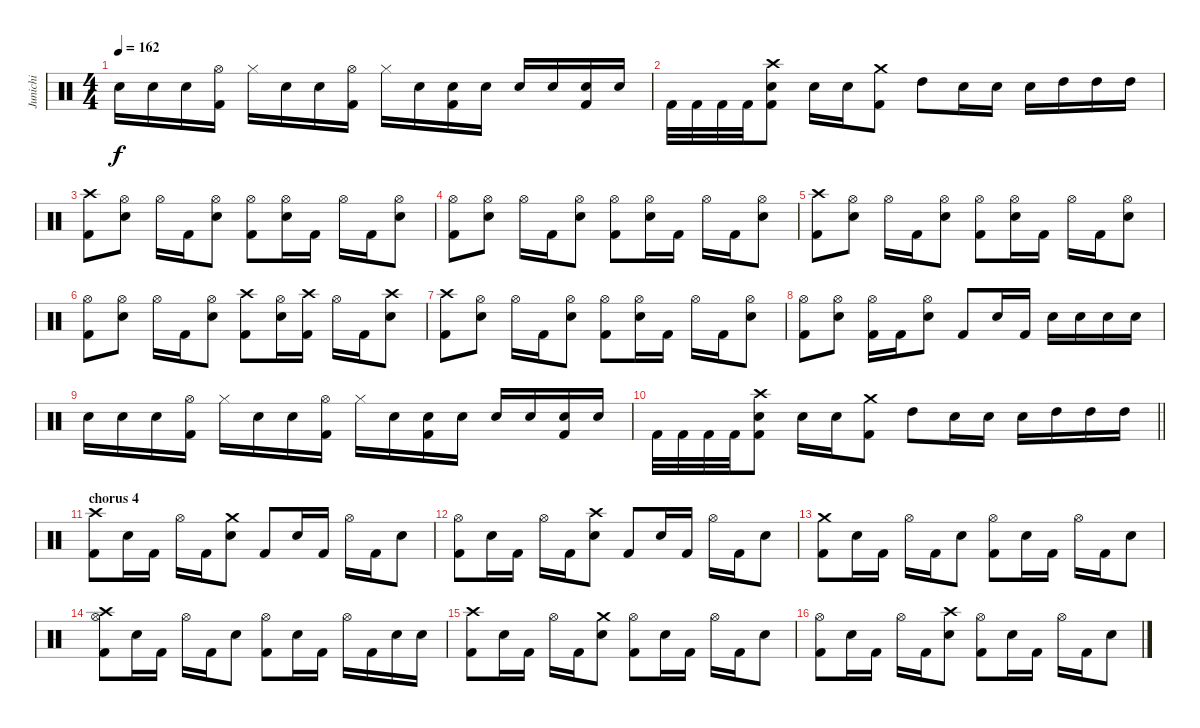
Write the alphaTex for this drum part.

\track ("Junichi" "Junichi") {instrument percussion}
\staff {score}
\articulation defaults
\ts (4 4)
\tempo 162
\clef neutral
\ks c "Electric Snare (hit)".16{dy f} "Electric Snare (hit)".16 "Electric Snare (hit)".16
("Hi-Hat (open)" "Kick (hit) 2").16 "Hi-Hat (closed)".16 "Electric Snare (hit)".16 "Electric Snare (hit)".16 ("Hi-Hat (open)" "Kick (hit) 2").16 "Hi-Hat (closed)".16 "Electric Snare (hit)".16 ("Electric Snare (hit)" "Kick (hit) 2").16 "Electric Snare (hit)".16 "Electric Snare (hit)".16 "Electric Snare (hit)".16 ("Electric Snare (hit)" "Kick (hit) 2").16 "Electric Snare (hit)".16 |
"Kick (hit) 2".32 "Kick (hit) 2".32 "Kick (hit) 2".32 "Kick (hit) 2".32 ("Crash high (hit)" "Electric Snare (hit)" "Kick (hit) 2").8 "Electric Snare (hit)".16 "Electric Snare (hit)".16 ("Crash medium (hit)" "Kick (hit) 2").8 "High Tom (hit)".8 "Electric Snare (hit)".16 "Electric Snare (hit)".16 "Electric Snare (hit)".16 "High Tom (hit)".16 "High Tom (hit)".16 "High Tom (hit)".16 |
("Crash high (hit)" "Kick (hit) 2").8 ("Hi-Hat (open)" "Electric Snare (hit)").8 "Hi-Hat (open)".16 "Kick (hit) 2".16 ("Hi-Hat (open)" "Electric Snare (hit)").8 ("Hi-Hat (open)" "Kick (hit) 2").8 ("Hi-Hat (open)" "Electric Snare (hit)").16 "Kick (hit) 2".16 "Hi-Hat (open)".16 "Kick (hit) 2".16 ("Hi-Hat (open)" "Electric Snare (hit)").8 |
("Hi-Hat (open)" "Kick (hit) 2").8 ("Hi-Hat (open)" "Electric Snare (hit)").8 "Hi-Hat (open)".16 "Kick (hit) 2".16 ("Hi-Hat (open)" "Electric Snare (hit)").8 ("Hi-Hat (open)" "Kick (hit) 2").8 ("Hi-Hat (open)" "Electric Snare (hit)").16 "Kick (hit) 2".16 "Hi-Hat (open)".16 "Kick (hit) 2".16 ("Hi-Hat (open)" "Electric Snare (hit)").8 |
("Crash high (hit)" "Kick (hit) 2").8 ("Hi-Hat (open)" "Electric Snare (hit)").8 "Hi-Hat (open)".16 "Kick (hit) 2".16 ("Hi-Hat (open)" "Electric Snare (hit)").8 ("Hi-Hat (open)" "Kick (hit) 2").8 ("Hi-Hat (open)" "Electric Snare (hit)").16 "Kick (hit) 2".16 "Hi-Hat (open)".16 "Kick (hit) 2".16 ("Hi-Hat (open)" "Electric Snare (hit)").8 |
("Hi-Hat (open)" "Kick (hit) 2").8 ("Hi-Hat (open)" "Electric Snare (hit)").8 "Hi-Hat (open)".16 "Kick (hit) 2".16 ("Hi-Hat (open)" "Electric Snare (hit)").8 ("Crash high (hit)" "Kick (hit) 2").8 ("Hi-Hat (open)" "Electric Snare (hit)").16 ("Crash high (hit)" "Kick (hit) 2").16 "Hi-Hat (open)".16 "Kick (hit) 2".16 ("Crash high (hit)" "Electric Snare (hit)").8 |
("Crash high (hit)" "Kick (hit) 2").8 ("Hi-Hat (open)" "Electric Snare (hit)").8 "Hi-Hat (open)".16 "Kick (hit) 2".16 ("Hi-Hat (open)" "Electric Snare (hit)").8 ("Hi-Hat (open)" "Kick (hit) 2").8 ("Hi-Hat (open)" "Electric Snare (hit)").16 "Kick (hit) 2".16 "Hi-Hat (open)".16 "Kick (hit) 2".16 ("Hi-Hat (open)" "Electric Snare (hit)").8 |
("Hi-Hat (open)" "Kick (hit) 2").8 ("Hi-Hat (open)" "Electric Snare (hit)").8 ("Hi-Hat (open)" "Kick (hit) 2").16 "Kick (hit) 2".16 ("Hi-Hat (open)" "Electric Snare (hit)").8 "Kick (hit) 2".8 "Electric Snare (hit)".16 "Kick (hit) 2".16 "Electric Snare (hit)".16 "Electric Snare (hit)".16 "Electric Snare (hit)".16 "Electric Snare (hit)".16 |
"Electric Snare (hit)".16 "Electric Snare (hit)".16 "Electric Snare (hit)".16 ("Hi-Hat (open)" "Kick (hit) 2").16 "Hi-Hat (closed)".16 "Electric Snare (hit)".16 "Electric Snare (hit)".16 ("Hi-Hat (open)" "Kick (hit) 2").16 "Hi-Hat (closed)".16 "Electric Snare (hit)".16 ("Electric Snare (hit)" "Kick (hit) 2").16 "Electric Snare (hit)".16 "Electric Snare (hit)".16 "Electric Snare (hit)".16 ("Electric Snare (hit)" "Kick (hit) 2").16 "Electric Snare (hit)".16 |
\barLineRight lightlight "Kick (hit) 2".32 "Kick (hit) 2".32 "Kick (hit) 2".32 "Kick (hit) 2".32
("Crash high (hit)" "Electric Snare (hit)" "Kick (hit) 2").8 "Electric Snare (hit)".16 "Electric Snare (hit)".16 ("Crash medium (hit)" "Kick (hit) 2").8 "High Tom (hit)".8 "Electric Snare (hit)".16 "Electric Snare (hit)".16 "Electric Snare (hit)".16 "High Tom (hit)".16 "High Tom (hit)".16 "High Tom (hit)".16 |
\section ("" "chorus 4")
("Crash high (hit)" "Kick (hit) 2").8 "Electric Snare (hit)".16 "Kick (hit) 2".16 "Hi-Hat (open)".16 "Kick (hit) 2".16 ("Crash medium (hit)" "Electric Snare (hit)").8 "Kick (hit) 2".8 "Electric Snare (hit)".16 "Kick (hit) 2".16 "Hi-Hat (open)".16 "Kick (hit) 2".16 "Electric Snare (hit)".8 |
("Hi-Hat (open)" "Kick (hit) 2").8 "Electric Snare (hit)".16 "Kick (hit) 2".16 "Hi-Hat (open)".16 "Kick (hit) 2".16 ("Crash high (hit)" "Electric Snare (hit)").8 "Kick (hit) 2".8 "Electric Snare (hit)".16 "Kick (hit) 2".16 "Hi-Hat (open)".16 "Kick (hit) 2".16 "Electric Snare (hit)".8 |
("Crash medium (hit)" "Kick (hit) 2").8 "Electric Snare (hit)".16 "Kick (hit) 2".16 "Hi-Hat (open)".16 "Kick (hit) 2".16 "Electric Snare (hit)".8 ("Hi-Hat (open)" "Kick (hit) 2").8 "Electric Snare (hit)".16 "Kick (hit) 2".16 "Hi-Hat (open)".16 "Kick (hit) 2".16 "Electric Snare (hit)".8 |
("Crash high (hit)" "Hi-Hat (open)" "Kick (hit) 2").8 "Electric Snare (hit)".16 "Kick (hit) 2".16 "Hi-Hat (open)".16 "Kick (hit) 2".16 "Electric Snare (hit)".8 ("Hi-Hat (open)" "Kick (hit) 2").8 "Electric Snare (hit)".16 "Kick (hit) 2".16 "Hi-Hat (open)".16 "Kick (hit) 2".16 "Electric Snare (hit)".16 "Electric Snare (hit)".16 |
("Crash high (hit)" "Kick (hit) 2").8 "Electric Snare (hit)".16 "Kick (hit) 2".16 "Hi-Hat (open)".16 "Kick (hit) 2".16 ("Crash medium (hit)" "Electric Snare (hit)").8 ("Hi-Hat (open)" "Kick (hit) 2").8 "Electric Snare (hit)".16 "Kick (hit) 2".16 "Hi-Hat (open)".16 "Kick (hit) 2".16 "Electric Snare (hit)".8 |
("Hi-Hat (open)" "Kick (hit) 2").8 "Electric Snare (hit)".16 "Kick (hit) 2".16 "Hi-Hat (open)".16 "Kick (hit) 2".16 ("Crash high (hit)" "Electric Snare (hit)").8 ("Hi-Hat (open)" "Kick (hit) 2").8 "Electric Snare (hit)".16 "Kick (hit) 2".16 "Hi-Hat (open)".16 "Kick (hit) 2".16 "Electric Snare (hit)".8
